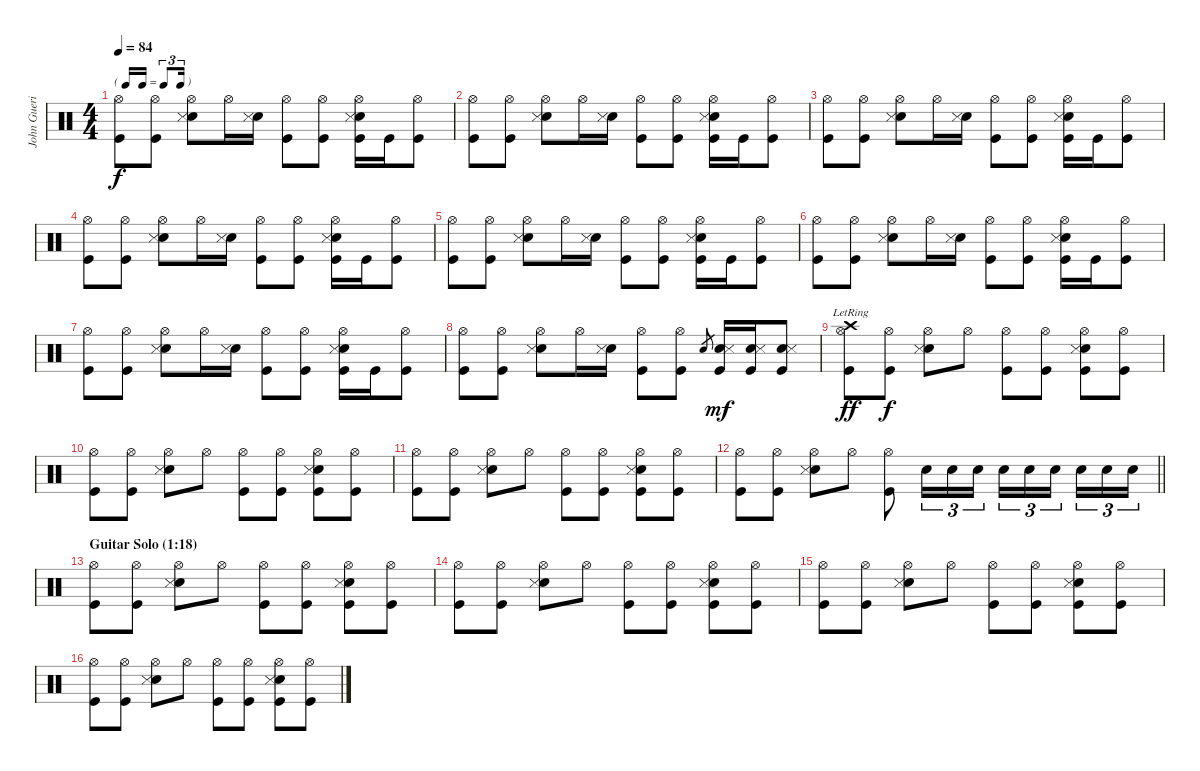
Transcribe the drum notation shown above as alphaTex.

\track ("John Guerin - Drums" "John Gueri") {instrument percussion}
\staff {score}
\articulation defaults
\ts (4 4)
\tf triplet16th
\tempo 84
\clef neutral
\ks c
("Hi-Hat (open)" "Kick (hit)").8{dy f} ("Hi-Hat (open)" "Kick (hit)").8 ("Hi-Hat (open)" "Electric Snare (hit)" "Snare (side stick) 3").8 "Hi-Hat (open)".16 ("Electric Snare (hit)" "Snare (side stick) 3").16 ("Hi-Hat (open)" "Kick (hit)").8 ("Hi-Hat (open)" "Kick (hit)").8 ("Hi-Hat (open)" "Electric Snare (hit)" "Snare (side stick) 3" "Kick (hit)").16 "Kick (hit)".16 ("Hi-Hat (open)" "Kick (hit)").8 |
("Hi-Hat (open)" "Kick (hit)").8 ("Hi-Hat (open)" "Kick (hit)").8 ("Hi-Hat (open)" "Electric Snare (hit)" "Snare (side stick) 3").8 "Hi-Hat (open)".16 ("Electric Snare (hit)" "Snare (side stick) 3").16 ("Hi-Hat (open)" "Kick (hit)").8 ("Hi-Hat (open)" "Kick (hit)").8 ("Hi-Hat (open)" "Electric Snare (hit)" "Snare (side stick) 3" "Kick (hit)").16 "Kick (hit)".16 ("Hi-Hat (open)" "Kick (hit)").8 |
("Hi-Hat (open)" "Kick (hit)").8 ("Hi-Hat (open)" "Kick (hit)").8 ("Hi-Hat (open)" "Electric Snare (hit)" "Snare (side stick) 3").8 "Hi-Hat (open)".16 ("Electric Snare (hit)" "Snare (side stick) 3").16 ("Hi-Hat (open)" "Kick (hit)").8 ("Hi-Hat (open)" "Kick (hit)").8 ("Hi-Hat (open)" "Electric Snare (hit)" "Snare (side stick) 3" "Kick (hit)").16 "Kick (hit)".16 ("Hi-Hat (open)" "Kick (hit)").8 |
("Hi-Hat (open)" "Kick (hit)").8 ("Hi-Hat (open)" "Kick (hit)").8 ("Hi-Hat (open)" "Electric Snare (hit)" "Snare (side stick) 3").8 "Hi-Hat (open)".16 ("Electric Snare (hit)" "Snare (side stick) 3").16 ("Hi-Hat (open)" "Kick (hit)").8 ("Hi-Hat (open)" "Kick (hit)").8 ("Hi-Hat (open)" "Electric Snare (hit)" "Snare (side stick) 3" "Kick (hit)").16 "Kick (hit)".16 ("Hi-Hat (open)" "Kick (hit)").8 |
("Hi-Hat (open)" "Kick (hit)").8 ("Hi-Hat (open)" "Kick (hit)").8 ("Hi-Hat (open)" "Electric Snare (hit)" "Snare (side stick) 3").8 "Hi-Hat (open)".16 ("Electric Snare (hit)" "Snare (side stick) 3").16 ("Hi-Hat (open)" "Kick (hit)").8 ("Hi-Hat (open)" "Kick (hit)").8 ("Hi-Hat (open)" "Electric Snare (hit)" "Snare (side stick) 3" "Kick (hit)").16 "Kick (hit)".16 ("Hi-Hat (open)" "Kick (hit)").8 |
("Hi-Hat (open)" "Kick (hit)").8 ("Hi-Hat (open)" "Kick (hit)").8 ("Hi-Hat (open)" "Electric Snare (hit)" "Snare (side stick) 3").8 "Hi-Hat (open)".16 ("Electric Snare (hit)" "Snare (side stick) 3").16 ("Hi-Hat (open)" "Kick (hit)").8 ("Hi-Hat (open)" "Kick (hit)").8 ("Hi-Hat (open)" "Electric Snare (hit)" "Snare (side stick) 3" "Kick (hit)").16 "Kick (hit)".16 ("Hi-Hat (open)" "Kick (hit)").8 |
("Hi-Hat (open)" "Kick (hit)").8 ("Hi-Hat (open)" "Kick (hit)").8 ("Hi-Hat (open)" "Electric Snare (hit)" "Snare (side stick) 3").8 "Hi-Hat (open)".16 ("Electric Snare (hit)" "Snare (side stick) 3").16 ("Hi-Hat (open)" "Kick (hit)").8 ("Hi-Hat (open)" "Kick (hit)").8 ("Hi-Hat (open)" "Electric Snare (hit)" "Snare (side stick) 3" "Kick (hit)").16 "Kick (hit)".16 ("Hi-Hat (open)" "Kick (hit)").8 |
("Hi-Hat (open)" "Kick (hit)").8 ("Hi-Hat (open)" "Kick (hit)").8 ("Hi-Hat (open)" "Electric Snare (hit)" "Snare (side stick) 3").8 "Hi-Hat (open)".16 ("Electric Snare (hit)" "Snare (side stick) 3").16 ("Hi-Hat (open)" "Kick (hit)").8 ("Hi-Hat (open)" "Kick (hit)").8 "Electric Snare (hit)".8{gr} ("Electric Snare (hit)" "Snare (side stick) 3" "Kick (hit)").16{dy mf} ("Electric Snare (hit)" "Snare (side stick) 3" "Kick (hit)").16 ("Electric Snare (hit)" "Snare (side stick) 3" "Kick (hit)").8 |
("Crash high (hit)"{lr} "Hi-Hat (open)" "Kick (hit)").8{dy ff} ("Hi-Hat (open)" "Kick (hit)").8{dy f} ("Hi-Hat (open)" "Electric Snare (hit)" "Snare (side stick) 3").8 "Hi-Hat (open)".8 ("Hi-Hat (open)" "Kick (hit)").8 ("Hi-Hat (open)" "Kick (hit)").8 ("Hi-Hat (open)" "Electric Snare (hit)" "Snare (side stick) 3" "Kick (hit)").8 ("Hi-Hat (open)" "Kick (hit)").8 |
("Hi-Hat (open)" "Kick (hit)").8 ("Hi-Hat (open)" "Kick (hit)").8 ("Hi-Hat (open)" "Electric Snare (hit)" "Snare (side stick) 3").8 "Hi-Hat (open)".8 ("Hi-Hat (open)" "Kick (hit)").8 ("Hi-Hat (open)" "Kick (hit)").8 ("Hi-Hat (open)" "Electric Snare (hit)" "Snare (side stick) 3" "Kick (hit)").8 ("Hi-Hat (open)" "Kick (hit)").8 |
("Hi-Hat (open)" "Kick (hit)").8 ("Hi-Hat (open)" "Kick (hit)").8 ("Hi-Hat (open)" "Electric Snare (hit)" "Snare (side stick) 3").8 "Hi-Hat (open)".8 ("Hi-Hat (open)" "Kick (hit)").8 ("Hi-Hat (open)" "Kick (hit)").8 ("Hi-Hat (open)" "Electric Snare (hit)" "Snare (side stick) 3" "Kick (hit)").8 ("Hi-Hat (open)" "Kick (hit)").8 |
\barLineRight lightlight
("Hi-Hat (open)" "Kick (hit)").8 ("Hi-Hat (open)" "Kick (hit)").8 ("Hi-Hat (open)" "Electric Snare (hit)" "Snare (side stick) 3").8 "Hi-Hat (open)".8 ("Hi-Hat (open)" "Kick (hit)").8 "Electric Snare (hit)".16{tu (3 2)} "Electric Snare (hit)".16{tu (3 2)} "Electric Snare (hit)".16{tu (3 2)} "Electric Snare (hit)".16{tu (3 2)} "Electric Snare (hit)".16{tu (3 2)} "Electric Snare (hit)".16{tu (3 2) beam splitsecondary} "Electric Snare (hit)".16{tu (3 2)} "Electric Snare (hit)".16{tu (3 2)} "Electric Snare (hit)".16{tu (3 2)} |
\section ("" "Guitar Solo (1:18)")
("Hi-Hat (open)" "Kick (hit)").8 ("Hi-Hat (open)" "Kick (hit)").8 ("Hi-Hat (open)" "Electric Snare (hit)" "Snare (side stick) 3").8 "Hi-Hat (open)".8 ("Hi-Hat (open)" "Kick (hit)").8 ("Hi-Hat (open)" "Kick (hit)").8 ("Hi-Hat (open)" "Electric Snare (hit)" "Snare (side stick) 3" "Kick (hit)").8 ("Hi-Hat (open)" "Kick (hit)").8 |
("Hi-Hat (open)" "Kick (hit)").8 ("Hi-Hat (open)" "Kick (hit)").8 ("Hi-Hat (open)" "Electric Snare (hit)" "Snare (side stick) 3").8 "Hi-Hat (open)".8 ("Hi-Hat (open)" "Kick (hit)").8 ("Hi-Hat (open)" "Kick (hit)").8 ("Hi-Hat (open)" "Electric Snare (hit)" "Snare (side stick) 3" "Kick (hit)").8 ("Hi-Hat (open)" "Kick (hit)").8 |
("Hi-Hat (open)" "Kick (hit)").8 ("Hi-Hat (open)" "Kick (hit)").8 ("Hi-Hat (open)" "Electric Snare (hit)" "Snare (side stick) 3").8 "Hi-Hat (open)".8 ("Hi-Hat (open)" "Kick (hit)").8 ("Hi-Hat (open)" "Kick (hit)").8 ("Hi-Hat (open)" "Electric Snare (hit)" "Snare (side stick) 3" "Kick (hit)").8 ("Hi-Hat (open)" "Kick (hit)").8 |
("Hi-Hat (open)" "Kick (hit)").8 ("Hi-Hat (open)" "Kick (hit)").8 ("Hi-Hat (open)" "Electric Snare (hit)" "Snare (side stick) 3").8 "Hi-Hat (open)".8 ("Hi-Hat (open)" "Kick (hit)").8 ("Hi-Hat (open)" "Kick (hit)").8 ("Hi-Hat (open)" "Electric Snare (hit)" "Snare (side stick) 3" "Kick (hit)").8 ("Hi-Hat (open)" "Kick (hit)").8
